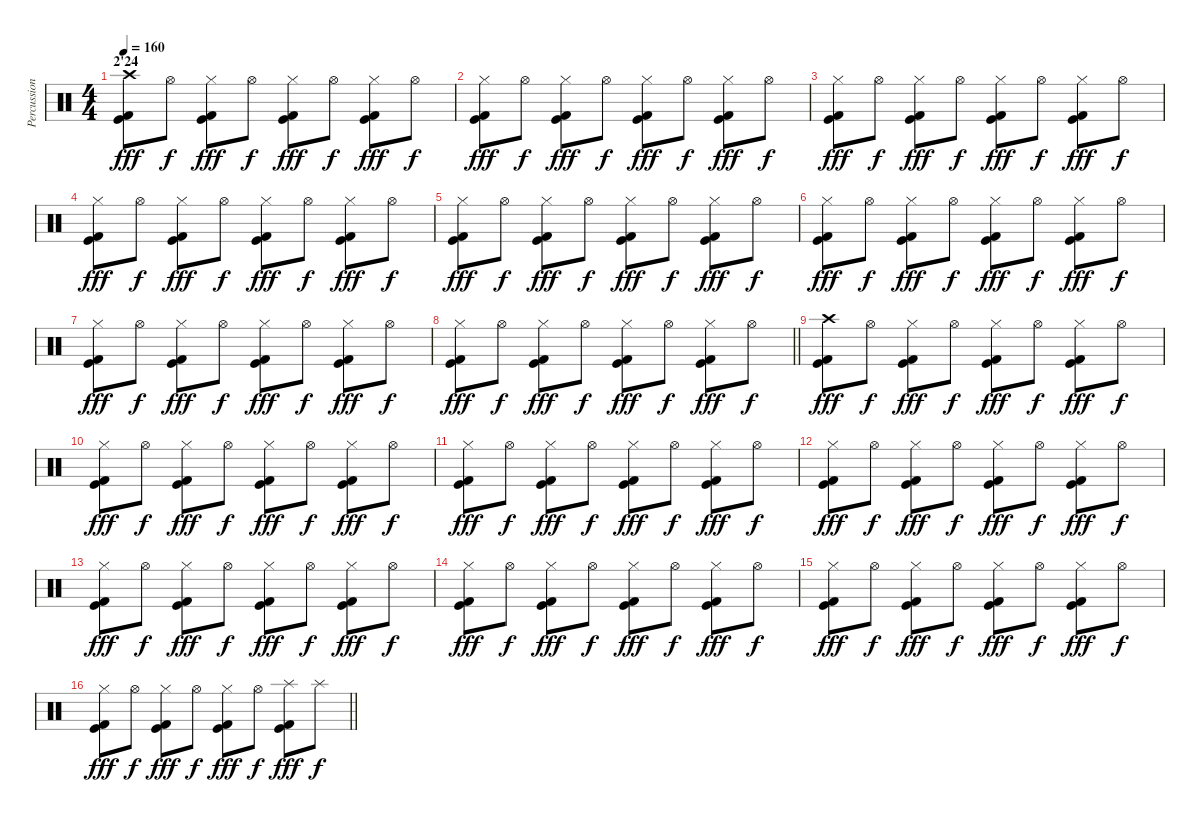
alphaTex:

\track ("Percussions" "Percussion") {instrument percussion}
\staff {score}
\articulation defaults
\ts (4 4)
\section ("" "2'24")
\tempo 160
\clef neutral
\ks c
("Crash high (hit)" "Kick (hit) 2" "Kick (hit)").8{dy fff} "Hi-Hat (open)".8{dy f} ("Hi-Hat (closed)" "Kick (hit) 2" "Kick (hit)").8{dy fff} "Hi-Hat (open)".8{dy f} ("Hi-Hat (closed)" "Kick (hit) 2" "Kick (hit)").8{dy fff} "Hi-Hat (open)".8{dy f} ("Hi-Hat (closed)" "Kick (hit) 2" "Kick (hit)").8{dy fff} "Hi-Hat (open)".8{dy f} |
("Hi-Hat (closed)" "Kick (hit) 2" "Kick (hit)").8{dy fff} "Hi-Hat (open)".8{dy f} ("Hi-Hat (closed)" "Kick (hit) 2" "Kick (hit)").8{dy fff} "Hi-Hat (open)".8{dy f} ("Hi-Hat (closed)" "Kick (hit) 2" "Kick (hit)").8{dy fff} "Hi-Hat (open)".8{dy f} ("Hi-Hat (closed)" "Kick (hit) 2" "Kick (hit)").8{dy fff} "Hi-Hat (open)".8{dy f} |
("Hi-Hat (closed)" "Kick (hit) 2" "Kick (hit)").8{dy fff} "Hi-Hat (open)".8{dy f} ("Hi-Hat (closed)" "Kick (hit) 2" "Kick (hit)").8{dy fff} "Hi-Hat (open)".8{dy f} ("Hi-Hat (closed)" "Kick (hit) 2" "Kick (hit)").8{dy fff} "Hi-Hat (open)".8{dy f} ("Hi-Hat (closed)" "Kick (hit) 2" "Kick (hit)").8{dy fff} "Hi-Hat (open)".8{dy f} |
("Hi-Hat (closed)" "Kick (hit) 2" "Kick (hit)").8{dy fff} "Hi-Hat (open)".8{dy f} ("Hi-Hat (closed)" "Kick (hit) 2" "Kick (hit)").8{dy fff} "Hi-Hat (open)".8{dy f} ("Hi-Hat (closed)" "Kick (hit) 2" "Kick (hit)").8{dy fff} "Hi-Hat (open)".8{dy f} ("Hi-Hat (closed)" "Kick (hit) 2" "Kick (hit)").8{dy fff} "Hi-Hat (open)".8{dy f} |
("Hi-Hat (closed)" "Kick (hit) 2" "Kick (hit)").8{dy fff} "Hi-Hat (open)".8{dy f} ("Hi-Hat (closed)" "Kick (hit) 2" "Kick (hit)").8{dy fff} "Hi-Hat (open)".8{dy f} ("Hi-Hat (closed)" "Kick (hit) 2" "Kick (hit)").8{dy fff} "Hi-Hat (open)".8{dy f} ("Hi-Hat (closed)" "Kick (hit) 2" "Kick (hit)").8{dy fff} "Hi-Hat (open)".8{dy f} |
("Hi-Hat (closed)" "Kick (hit) 2" "Kick (hit)").8{dy fff} "Hi-Hat (open)".8{dy f} ("Hi-Hat (closed)" "Kick (hit) 2" "Kick (hit)").8{dy fff} "Hi-Hat (open)".8{dy f} ("Hi-Hat (closed)" "Kick (hit) 2" "Kick (hit)").8{dy fff} "Hi-Hat (open)".8{dy f} ("Hi-Hat (closed)" "Kick (hit) 2" "Kick (hit)").8{dy fff} "Hi-Hat (open)".8{dy f} |
("Hi-Hat (closed)" "Kick (hit) 2" "Kick (hit)").8{dy fff} "Hi-Hat (open)".8{dy f} ("Hi-Hat (closed)" "Kick (hit) 2" "Kick (hit)").8{dy fff} "Hi-Hat (open)".8{dy f} ("Hi-Hat (closed)" "Kick (hit) 2" "Kick (hit)").8{dy fff} "Hi-Hat (open)".8{dy f} ("Hi-Hat (closed)" "Kick (hit) 2" "Kick (hit)").8{dy fff} "Hi-Hat (open)".8{dy f} |
\barLineRight lightlight
("Hi-Hat (closed)" "Kick (hit) 2" "Kick (hit)").8{dy fff} "Hi-Hat (open)".8{dy f} ("Hi-Hat (closed)" "Kick (hit) 2" "Kick (hit)").8{dy fff} "Hi-Hat (open)".8{dy f} ("Hi-Hat (closed)" "Kick (hit) 2" "Kick (hit)").8{dy fff} "Hi-Hat (open)".8{dy f} ("Hi-Hat (closed)" "Kick (hit) 2" "Kick (hit)").8{dy fff} "Hi-Hat (open)".8{dy f} |
("Crash high (hit)" "Kick (hit) 2" "Kick (hit)").8{dy fff} "Hi-Hat (open)".8{dy f} ("Hi-Hat (closed)" "Kick (hit) 2" "Kick (hit)").8{dy fff} "Hi-Hat (open)".8{dy f} ("Hi-Hat (closed)" "Kick (hit) 2" "Kick (hit)").8{dy fff} "Hi-Hat (open)".8{dy f} ("Hi-Hat (closed)" "Kick (hit) 2" "Kick (hit)").8{dy fff} "Hi-Hat (open)".8{dy f} |
("Hi-Hat (closed)" "Kick (hit) 2" "Kick (hit)").8{dy fff} "Hi-Hat (open)".8{dy f} ("Hi-Hat (closed)" "Kick (hit) 2" "Kick (hit)").8{dy fff} "Hi-Hat (open)".8{dy f} ("Hi-Hat (closed)" "Kick (hit) 2" "Kick (hit)").8{dy fff} "Hi-Hat (open)".8{dy f} ("Hi-Hat (closed)" "Kick (hit) 2" "Kick (hit)").8{dy fff} "Hi-Hat (open)".8{dy f} |
("Hi-Hat (closed)" "Kick (hit) 2" "Kick (hit)").8{dy fff} "Hi-Hat (open)".8{dy f} ("Hi-Hat (closed)" "Kick (hit) 2" "Kick (hit)").8{dy fff} "Hi-Hat (open)".8{dy f} ("Hi-Hat (closed)" "Kick (hit) 2" "Kick (hit)").8{dy fff} "Hi-Hat (open)".8{dy f} ("Hi-Hat (closed)" "Kick (hit) 2" "Kick (hit)").8{dy fff} "Hi-Hat (open)".8{dy f} |
("Hi-Hat (closed)" "Kick (hit) 2" "Kick (hit)").8{dy fff} "Hi-Hat (open)".8{dy f} ("Hi-Hat (closed)" "Kick (hit) 2" "Kick (hit)").8{dy fff} "Hi-Hat (open)".8{dy f} ("Hi-Hat (closed)" "Kick (hit) 2" "Kick (hit)").8{dy fff} "Hi-Hat (open)".8{dy f} ("Hi-Hat (closed)" "Kick (hit) 2" "Kick (hit)").8{dy fff} "Hi-Hat (open)".8{dy f} |
("Hi-Hat (closed)" "Kick (hit) 2" "Kick (hit)").8{dy fff} "Hi-Hat (open)".8{dy f} ("Hi-Hat (closed)" "Kick (hit) 2" "Kick (hit)").8{dy fff} "Hi-Hat (open)".8{dy f} ("Hi-Hat (closed)" "Kick (hit) 2" "Kick (hit)").8{dy fff} "Hi-Hat (open)".8{dy f} ("Hi-Hat (closed)" "Kick (hit) 2" "Kick (hit)").8{dy fff} "Hi-Hat (open)".8{dy f} |
("Hi-Hat (closed)" "Kick (hit) 2" "Kick (hit)").8{dy fff} "Hi-Hat (open)".8{dy f} ("Hi-Hat (closed)" "Kick (hit) 2" "Kick (hit)").8{dy fff} "Hi-Hat (open)".8{dy f} ("Hi-Hat (closed)" "Kick (hit) 2" "Kick (hit)").8{dy fff} "Hi-Hat (open)".8{dy f} ("Hi-Hat (closed)" "Kick (hit) 2" "Kick (hit)").8{dy fff} "Hi-Hat (open)".8{dy f} |
("Hi-Hat (closed)" "Kick (hit) 2" "Kick (hit)").8{dy fff} "Hi-Hat (open)".8{dy f} ("Hi-Hat (closed)" "Kick (hit) 2" "Kick (hit)").8{dy fff} "Hi-Hat (open)".8{dy f} ("Hi-Hat (closed)" "Kick (hit) 2" "Kick (hit)").8{dy fff} "Hi-Hat (open)".8{dy f} ("Hi-Hat (closed)" "Kick (hit) 2" "Kick (hit)").8{dy fff} "Hi-Hat (open)".8{dy f} |
\barLineRight lightlight
("Hi-Hat (closed)" "Kick (hit) 2" "Kick (hit)").8{dy fff} "Hi-Hat (open)".8{dy f} ("Hi-Hat (closed)" "Kick (hit) 2" "Kick (hit)").8{dy fff} "Hi-Hat (open)".8{dy f} ("Hi-Hat (closed)" "Kick (hit) 2" "Kick (hit)").8{dy fff} "Hi-Hat (open)".8{dy f} ("Splash (hit)" "Kick (hit) 2" "Kick (hit)").8{dy fff} "Splash (hit)".8{dy f}
